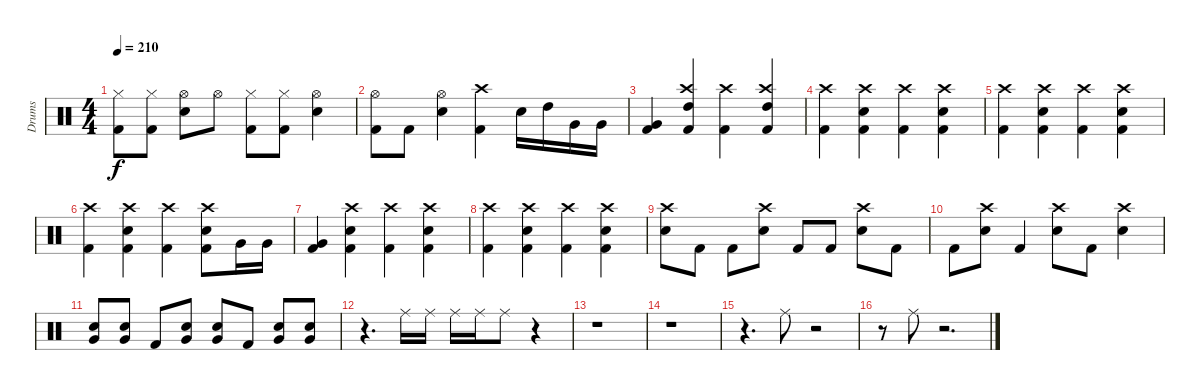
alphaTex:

\track ("Drums" "Drums") {instrument percussion}
\staff {score}
\articulation defaults
\ts (4 4)
\tempo 210
\clef neutral
\ks c
("Hi-Hat (closed)" "Kick (hit) 2").8{dy f} ("Hi-Hat (closed)" "Kick (hit) 2").8 ("Hi-Hat (open)" "Snare (hit) 2").8 "Hi-Hat (open)".8 ("Hi-Hat (closed)" "Kick (hit) 2").8 ("Hi-Hat (closed)" "Kick (hit) 2").8 ("Hi-Hat (open)" "Snare (hit) 2").4 |
("Hi-Hat (open)" "Kick (hit) 2").8 "Kick (hit) 2".8 ("Hi-Hat (open)" "Snare (hit) 2").4 ("Crash high (hit)" "Kick (hit) 2").4 "Snare (hit) 2".16 "High Tom (hit)".16 "Very Low Tom (hit)".16 "Very Low Tom (hit)".16 |
("Very Low Tom (hit)" "Kick (hit) 2").4 ("Crash high (hit)" "High Tom (hit)" "Kick (hit) 2").4 ("Crash high (hit)" "Kick (hit) 2").4 ("Crash high (hit)" "High Tom (hit)" "Kick (hit) 2").4 |
("Crash high (hit)" "Kick (hit) 2").4 ("Crash high (hit)" "Snare (hit) 2" "Kick (hit) 2").4 ("Crash high (hit)" "Kick (hit) 2").4 ("Crash high (hit)" "Snare (hit) 2" "Kick (hit) 2").4 |
("Crash high (hit)" "Kick (hit) 2").4 ("Crash high (hit)" "Snare (hit) 2" "Kick (hit) 2").4 ("Crash high (hit)" "Kick (hit) 2").4 ("Crash high (hit)" "Snare (hit) 2" "Kick (hit) 2").4 |
("Crash high (hit)" "Kick (hit) 2").4 ("Crash high (hit)" "Snare (hit) 2" "Kick (hit) 2").4 ("Crash high (hit)" "Kick (hit) 2").4 ("Crash high (hit)" "Snare (hit) 2" "Kick (hit) 2").8 "Very Low Tom (hit)".16 "Very Low Tom (hit)".16 |
("Very Low Tom (hit)" "Kick (hit) 2").4 ("Crash high (hit)" "Snare (hit) 2" "Kick (hit) 2").4 ("Crash high (hit)" "Kick (hit) 2").4 ("Crash high (hit)" "Snare (hit) 2" "Kick (hit) 2").4 |
("Crash high (hit)" "Kick (hit) 2").4 ("Crash high (hit)" "Snare (hit) 2" "Kick (hit) 2").4 ("Crash high (hit)" "Kick (hit) 2").4 ("Crash high (hit)" "Snare (hit) 2" "Kick (hit) 2").4 |
("Crash high (hit)" "Snare (hit) 2").8 "Kick (hit) 2".8 "Kick (hit) 2".8 ("Crash high (hit)" "Snare (hit) 2").8 "Kick (hit) 2".8 "Kick (hit) 2".8 ("Crash high (hit)" "Snare (hit) 2").8 "Kick (hit) 2".8 |
"Kick (hit) 2".8 ("Crash high (hit)" "Snare (hit) 2").8 "Kick (hit) 2".4 ("Crash high (hit)" "Snare (hit) 2").8 "Kick (hit) 2".8 ("Crash high (hit)" "Snare (hit) 2").4 |
("Snare (hit) 2" "Very Low Tom (hit)").8 ("Snare (hit) 2" "Very Low Tom (hit)").8 "Kick (hit) 2".8 ("Snare (hit) 2" "Very Low Tom (hit)").8 ("Snare (hit) 2" "Very Low Tom (hit)").8 "Kick (hit) 2".8 ("Snare (hit) 2" "Very Low Tom (hit)").8 ("Snare (hit) 2" "Very Low Tom (hit)").8 |
r.4{d} "Ride (middle)".16 "Ride (middle)".16 "Ride (middle)".16 "Ride (middle)".16 "Ride (middle)".8 r.4 |
r.1 |
r.1 |
r.4{d} "Ride (middle)".8 r.2 |
r.8 "Ride (middle)".8 r.2{d}
